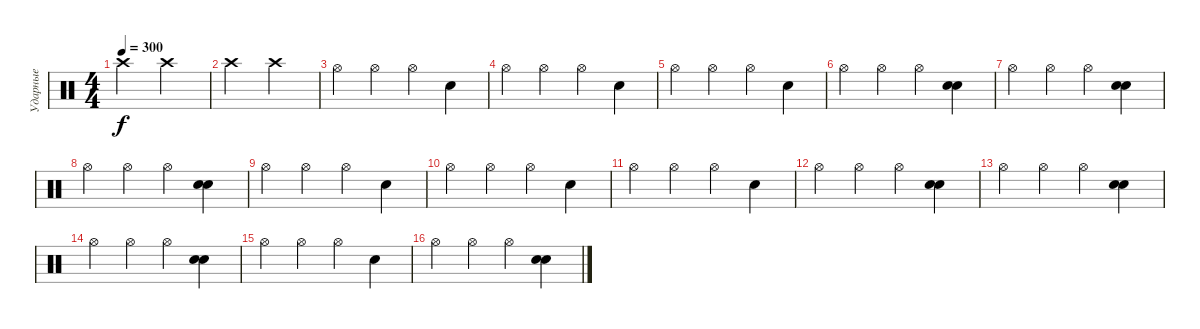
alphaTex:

\track ("Ударные" "Ударные") {instrument percussion}
\staff {score}
\articulation defaults
\ts (4 4)
\tempo 300
\clef neutral
\ks c "Crash high (hit)".2{dy f} "Crash high (hit)".2
|
"Crash high (hit)".2 "Crash high (hit)".2 |
"Hi-Hat (open)".4 "Hi-Hat (open)".4 "Hi-Hat (open)".4 "Electric Snare (hit)".4 |
"Hi-Hat (open)".4 "Hi-Hat (open)".4 "Hi-Hat (open)".4 "Electric Snare (hit)".4 |
"Hi-Hat (open)".4 "Hi-Hat (open)".4 "Hi-Hat (open)".4 "Electric Snare (hit)".4 |
"Hi-Hat (open)".4 "Hi-Hat (open)".4 "Hi-Hat (open)".4 ("Electric Snare (hit)" "Electric Snare (hit)").4 |
"Hi-Hat (open)".4 "Hi-Hat (open)".4 "Hi-Hat (open)".4 ("Electric Snare (hit)" "Electric Snare (hit)").4 |
"Hi-Hat (open)".4 "Hi-Hat (open)".4 "Hi-Hat (open)".4 ("Electric Snare (hit)" "Electric Snare (hit)").4 |
"Hi-Hat (open)".4 "Hi-Hat (open)".4 "Hi-Hat (open)".4 "Electric Snare (hit)".4 |
"Hi-Hat (open)".4 "Hi-Hat (open)".4 "Hi-Hat (open)".4 "Electric Snare (hit)".4 |
"Hi-Hat (open)".4 "Hi-Hat (open)".4 "Hi-Hat (open)".4 "Electric Snare (hit)".4 |
"Hi-Hat (open)".4 "Hi-Hat (open)".4 "Hi-Hat (open)".4 ("Electric Snare (hit)" "Electric Snare (hit)").4 |
"Hi-Hat (open)".4 "Hi-Hat (open)".4 "Hi-Hat (open)".4 ("Electric Snare (hit)" "Electric Snare (hit)").4 |
"Hi-Hat (open)".4 "Hi-Hat (open)".4 "Hi-Hat (open)".4 ("Electric Snare (hit)" "Electric Snare (hit)").4 |
"Hi-Hat (open)".4 "Hi-Hat (open)".4 "Hi-Hat (open)".4 "Electric Snare (hit)".4 |
"Hi-Hat (open)".4 "Hi-Hat (open)".4 "Hi-Hat (open)".4 ("Electric Snare (hit)" "Electric Snare (hit)").4
